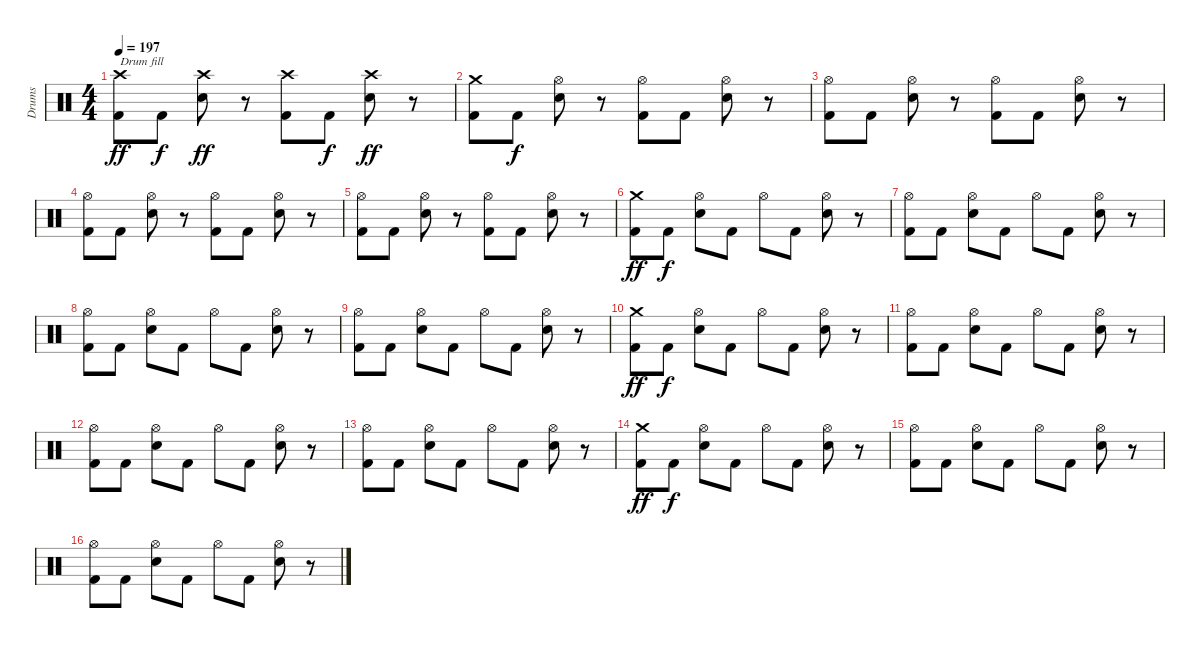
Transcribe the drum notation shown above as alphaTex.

\track ("Drums" "Drums") {instrument percussion}
\staff {score}
\articulation defaults
\ts (4 4)
\tempo 197
\clef neutral
\ks c
("Crash high (hit)" "Kick (hit) 2").8{txt "Drum fill" dy ff} "Kick (hit) 2".8{dy f} ("Crash high (hit)" "Snare (hit) 2").8{dy ff} r.8 ("Crash high (hit)" "Kick (hit) 2").8 "Kick (hit) 2".8{dy f} ("Crash high (hit)" "Snare (hit) 2").8{dy ff} r.8 |
("Crash medium (hit)" "Kick (hit) 2").8 "Kick (hit) 2".8{dy f} ("Hi-Hat (open)" "Snare (hit) 2").8 r.8 ("Hi-Hat (open)" "Kick (hit) 2").8 "Kick (hit) 2".8 ("Hi-Hat (open)" "Snare (hit) 2").8 r.8 |
("Hi-Hat (open)" "Kick (hit) 2").8 "Kick (hit) 2".8 ("Hi-Hat (open)" "Snare (hit) 2").8 r.8 ("Hi-Hat (open)" "Kick (hit) 2").8 "Kick (hit) 2".8 ("Hi-Hat (open)" "Snare (hit) 2").8 r.8 |
("Hi-Hat (open)" "Kick (hit) 2").8 "Kick (hit) 2".8 ("Hi-Hat (open)" "Snare (hit) 2").8 r.8 ("Hi-Hat (open)" "Kick (hit) 2").8 "Kick (hit) 2".8 ("Hi-Hat (open)" "Snare (hit) 2").8 r.8 |
("Hi-Hat (open)" "Kick (hit) 2").8 "Kick (hit) 2".8 ("Hi-Hat (open)" "Snare (hit) 2").8 r.8 ("Hi-Hat (open)" "Kick (hit) 2").8 "Kick (hit) 2".8 ("Hi-Hat (open)" "Snare (hit) 2").8 r.8 |
("Crash medium (hit)" "Kick (hit) 2").8{dy ff} "Kick (hit) 2".8{dy f} ("Hi-Hat (open)" "Snare (hit) 2").8 "Kick (hit) 2".8 "Hi-Hat (open)".8 "Kick (hit) 2".8 ("Hi-Hat (open)" "Snare (hit) 2").8 r.8 |
("Hi-Hat (open)" "Kick (hit) 2").8 "Kick (hit) 2".8 ("Hi-Hat (open)" "Snare (hit) 2").8 "Kick (hit) 2".8 "Hi-Hat (open)".8 "Kick (hit) 2".8 ("Hi-Hat (open)" "Snare (hit) 2").8 r.8 |
("Hi-Hat (open)" "Kick (hit) 2").8 "Kick (hit) 2".8 ("Hi-Hat (open)" "Snare (hit) 2").8 "Kick (hit) 2".8 "Hi-Hat (open)".8 "Kick (hit) 2".8 ("Hi-Hat (open)" "Snare (hit) 2").8 r.8 |
("Hi-Hat (open)" "Kick (hit) 2").8 "Kick (hit) 2".8 ("Hi-Hat (open)" "Snare (hit) 2").8 "Kick (hit) 2".8 "Hi-Hat (open)".8 "Kick (hit) 2".8 ("Hi-Hat (open)" "Snare (hit) 2").8 r.8 |
("Crash medium (hit)" "Kick (hit) 2").8{dy ff} "Kick (hit) 2".8{dy f} ("Hi-Hat (open)" "Snare (hit) 2").8 "Kick (hit) 2".8 "Hi-Hat (open)".8 "Kick (hit) 2".8 ("Hi-Hat (open)" "Snare (hit) 2").8 r.8 |
("Hi-Hat (open)" "Kick (hit) 2").8 "Kick (hit) 2".8 ("Hi-Hat (open)" "Snare (hit) 2").8 "Kick (hit) 2".8 "Hi-Hat (open)".8 "Kick (hit) 2".8 ("Hi-Hat (open)" "Snare (hit) 2").8 r.8 |
("Hi-Hat (open)" "Kick (hit) 2").8 "Kick (hit) 2".8 ("Hi-Hat (open)" "Snare (hit) 2").8 "Kick (hit) 2".8 "Hi-Hat (open)".8 "Kick (hit) 2".8 ("Hi-Hat (open)" "Snare (hit) 2").8 r.8 |
("Hi-Hat (open)" "Kick (hit) 2").8 "Kick (hit) 2".8 ("Hi-Hat (open)" "Snare (hit) 2").8 "Kick (hit) 2".8 "Hi-Hat (open)".8 "Kick (hit) 2".8 ("Hi-Hat (open)" "Snare (hit) 2").8 r.8 |
("Crash medium (hit)" "Kick (hit) 2").8{dy ff} "Kick (hit) 2".8{dy f} ("Hi-Hat (open)" "Snare (hit) 2").8 "Kick (hit) 2".8 "Hi-Hat (open)".8 "Kick (hit) 2".8 ("Hi-Hat (open)" "Snare (hit) 2").8 r.8 |
("Hi-Hat (open)" "Kick (hit) 2").8 "Kick (hit) 2".8 ("Hi-Hat (open)" "Snare (hit) 2").8 "Kick (hit) 2".8 "Hi-Hat (open)".8 "Kick (hit) 2".8 ("Hi-Hat (open)" "Snare (hit) 2").8 r.8 |
("Hi-Hat (open)" "Kick (hit) 2").8 "Kick (hit) 2".8 ("Hi-Hat (open)" "Snare (hit) 2").8 "Kick (hit) 2".8 "Hi-Hat (open)".8 "Kick (hit) 2".8 ("Hi-Hat (open)" "Snare (hit) 2").8 r.8
